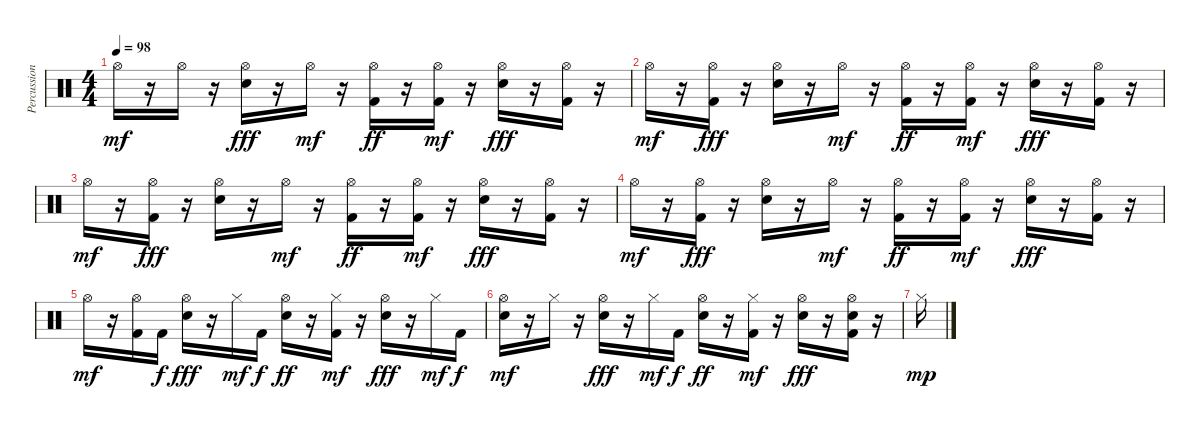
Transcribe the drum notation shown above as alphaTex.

\track ("Percussion" "Percussion") {instrument percussion}
\staff {score}
\articulation defaults
\ts (4 4)
\tempo 98
\clef neutral
\ks c "Hi-Hat (open)".16{dy mf}
r.16 "Hi-Hat (open)".16 r.16 ("Hi-Hat (open)" "Electric Snare (hit)").16{dy fff} r.16 "Hi-Hat (open)".16{dy mf} r.16 ("Hi-Hat (open)" "Kick (hit) 2").16{dy ff} r.16 ("Hi-Hat (open)" "Kick (hit) 2").16{dy mf} r.16 ("Hi-Hat (open)" "Electric Snare (hit)").16{dy fff} r.16 ("Hi-Hat (open)" "Kick (hit) 2").16 r.16 |
"Hi-Hat (open)".16{dy mf} r.16 ("Hi-Hat (open)" "Kick (hit) 2").16{dy fff} r.16 ("Hi-Hat (open)" "Electric Snare (hit)").16 r.16 "Hi-Hat (open)".16{dy mf} r.16 ("Hi-Hat (open)" "Kick (hit) 2").16{dy ff} r.16 ("Hi-Hat (open)" "Kick (hit) 2").16{dy mf} r.16 ("Hi-Hat (open)" "Electric Snare (hit)").16{dy fff} r.16 ("Hi-Hat (open)" "Kick (hit) 2").16 r.16 |
"Hi-Hat (open)".16{dy mf} r.16 ("Hi-Hat (open)" "Kick (hit) 2").16{dy fff} r.16 ("Hi-Hat (open)" "Electric Snare (hit)").16 r.16 "Hi-Hat (open)".16{dy mf} r.16 ("Hi-Hat (open)" "Kick (hit) 2").16{dy ff} r.16 ("Hi-Hat (open)" "Kick (hit) 2").16{dy mf} r.16 ("Hi-Hat (open)" "Electric Snare (hit)").16{dy fff} r.16 ("Hi-Hat (open)" "Kick (hit) 2").16 r.16 |
"Hi-Hat (open)".16{dy mf} r.16 ("Hi-Hat (open)" "Kick (hit) 2").16{dy fff} r.16 ("Hi-Hat (open)" "Electric Snare (hit)").16 r.16 "Hi-Hat (open)".16{dy mf} r.16 ("Hi-Hat (open)" "Kick (hit) 2").16{dy ff} r.16 ("Hi-Hat (open)" "Kick (hit) 2").16{dy mf} r.16 ("Hi-Hat (open)" "Electric Snare (hit)").16{dy fff} r.16 ("Hi-Hat (open)" "Kick (hit) 2").16 r.16 |
"Hi-Hat (open)".16{dy mf} r.16 ("Hi-Hat (open)" "Kick (hit) 2").16 "Kick (hit) 2".16{dy f} ("Hi-Hat (open)" "Electric Snare (hit)").16{dy fff} r.16 "Hi-Hat (closed)".16{dy mf} "Kick (hit) 2".16{dy f} ("Hi-Hat (open)" "Electric Snare (hit)").16{dy ff} r.16 ("Hi-Hat (closed)" "Kick (hit) 2").16{dy mf} r.16 ("Hi-Hat (open)" "Electric Snare (hit)").16{dy fff} r.16 "Hi-Hat (closed)".16{dy mf} "Kick (hit) 2".16{dy f} |
("Hi-Hat (open)" "Electric Snare (hit)").16{dy mf} r.16 "Hi-Hat (closed)".16 r.16 ("Hi-Hat (open)" "Electric Snare (hit)").16{dy fff} r.16 "Hi-Hat (closed)".16{dy mf} "Kick (hit) 2".16{dy f} ("Hi-Hat (open)" "Electric Snare (hit)").16{dy ff} r.16 ("Hi-Hat (closed)" "Kick (hit) 2").16{dy mf} r.16 ("Hi-Hat (open)" "Electric Snare (hit)").16{dy fff} r.16 ("Hi-Hat (open)" "Kick (hit) 2" "Electric Snare (hit)").16 r.16 |
"Hi-Hat (closed)".16{dy mp}
